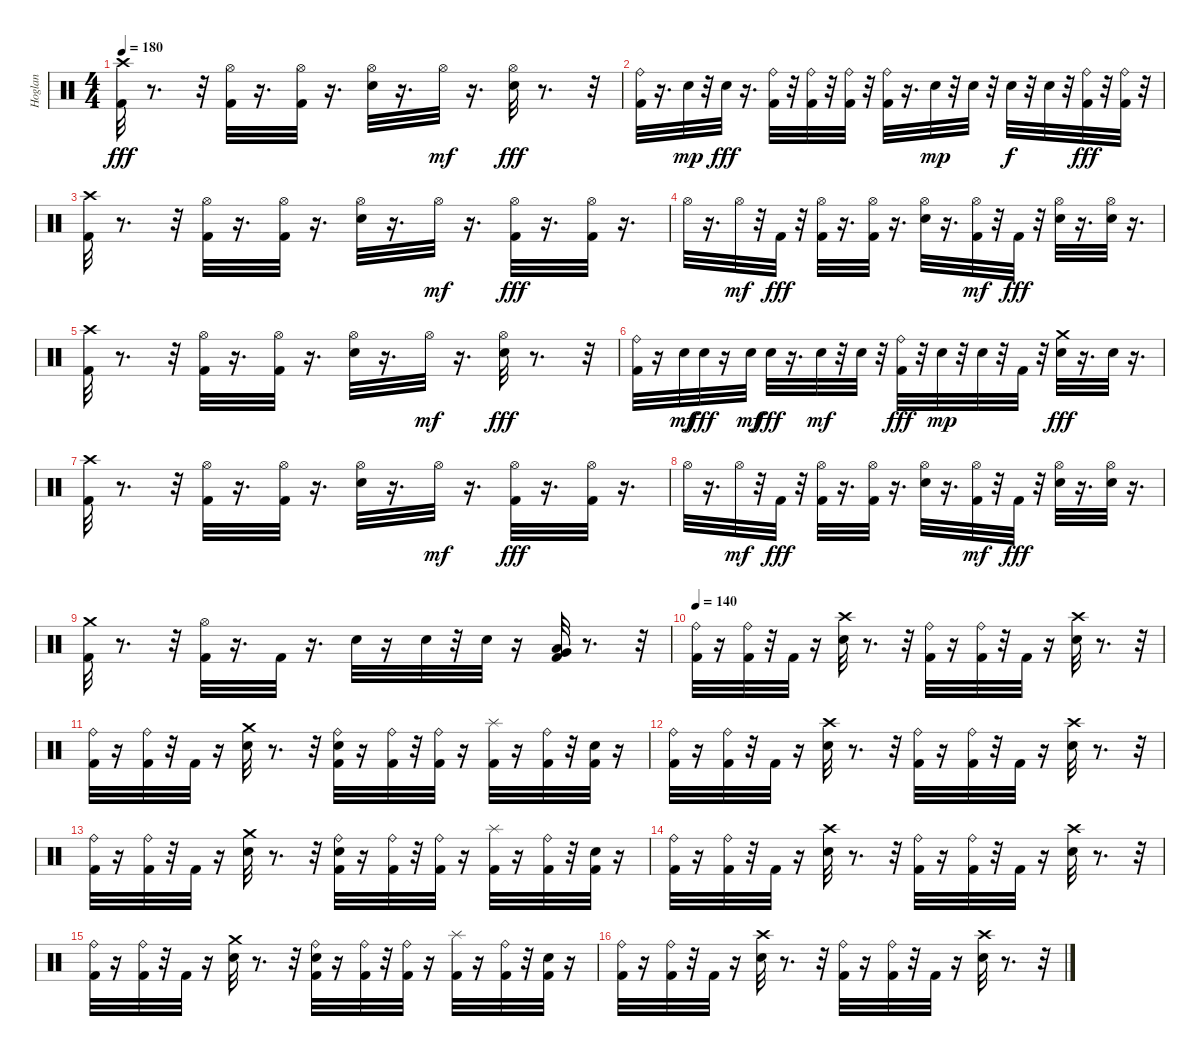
\track ("Hoglan" "Hoglan") {instrument percussion}
\staff {score}
\articulation defaults
\ts (4 4)
\tempo 180
\clef neutral
\ks c
("Crash high (hit)" "Kick (hit) 2").32{dy fff} r.8{d} r.32 ("Hi-Hat (open)" "Kick (hit) 2").32 r.16{d} ("Hi-Hat (open)" "Kick (hit) 2").32 r.16{d} ("Hi-Hat (open)" "Electric Snare (hit)").32 r.16{d} "Hi-Hat (open)".32{dy mf} r.16{d} ("Hi-Hat (open)" "Electric Snare (hit)").32{dy fff} r.8{d} r.32 |
("Ride (bell)" "Kick (hit) 2").32 r.16{d} "Electric Snare (hit)".32{dy mp} r.32 "Electric Snare (hit)".32{dy fff} r.16{d} ("Ride (bell)" "Kick (hit) 2").32 r.32 ("Ride (bell)" "Kick (hit) 2").32 r.32 ("Ride (bell)" "Kick (hit) 2").32 r.32 ("Ride (bell)" "Kick (hit) 2").32 r.16{d} "Electric Snare (hit)".32{dy mp} r.32 "Electric Snare (hit)".32 r.32 "Electric Snare (hit)".32{dy f} r.32 "Electric Snare (hit)".32 r.32 ("Ride (bell)" "Kick (hit) 2").32{dy fff} r.32 ("Ride (bell)" "Kick (hit) 2").32 r.32 |
("Crash high (hit)" "Kick (hit) 2").32 r.8{d} r.32 ("Hi-Hat (open)" "Kick (hit) 2").32 r.16{d} ("Hi-Hat (open)" "Kick (hit) 2").32 r.16{d} ("Hi-Hat (open)" "Electric Snare (hit)").32 r.16{d} "Hi-Hat (open)".32{dy mf} r.16{d} ("Hi-Hat (open)" "Kick (hit) 2").32{dy fff} r.16{d} ("Hi-Hat (open)" "Kick (hit) 2").32 r.16{d} |
"Hi-Hat (open)".32 r.16{d} "Hi-Hat (open)".32{dy mf} r.32 "Kick (hit) 2".32{dy fff} r.32 ("Hi-Hat (open)" "Kick (hit) 2").32 r.16{d} ("Hi-Hat (open)" "Kick (hit) 2").32 r.16{d} ("Hi-Hat (open)" "Electric Snare (hit)").32 r.16{d} ("Hi-Hat (open)" "Kick (hit) 2").32{dy mf} r.32 "Kick (hit) 2".32{dy fff} r.32 ("Hi-Hat (open)" "Electric Snare (hit)").32 r.16{d} ("Hi-Hat (open)" "Electric Snare (hit)").32 r.16{d} |
("Crash high (hit)" "Kick (hit) 2").32 r.8{d} r.32 ("Hi-Hat (open)" "Kick (hit) 2").32 r.16{d} ("Hi-Hat (open)" "Kick (hit) 2").32 r.16{d} ("Hi-Hat (open)" "Electric Snare (hit)").32 r.16{d} "Hi-Hat (open)".32{dy mf} r.16{d} ("Hi-Hat (open)" "Electric Snare (hit)").32{dy fff} r.8{d} r.32 |
("Ride (bell)" "Kick (hit) 2").32 r.16 "Electric Snare (hit)".32{dy mf} "Electric Snare (hit)".32{dy fff} r.16 "Electric Snare (hit)".32{dy mf} "Electric Snare (hit)".32{dy fff} r.16{d} "Electric Snare (hit)".32{dy mf} r.32 "Electric Snare (hit)".32 r.32 ("Ride (bell)" "Kick (hit) 2").32{dy fff} r.32 "Electric Snare (hit)".32{dy mp} r.32 "Electric Snare (hit)".32 r.32 "Kick (hit) 2".32 r.32 ("Crash medium (hit)" "Electric Snare (hit)").32{dy fff} r.16{d} "Electric Snare (hit)".32 r.16{d} |
("Crash high (hit)" "Kick (hit) 2").32 r.8{d} r.32 ("Hi-Hat (open)" "Kick (hit) 2").32 r.16{d} ("Hi-Hat (open)" "Kick (hit) 2").32 r.16{d} ("Hi-Hat (open)" "Electric Snare (hit)").32 r.16{d} "Hi-Hat (open)".32{dy mf} r.16{d} ("Hi-Hat (open)" "Kick (hit) 2").32{dy fff} r.16{d} ("Hi-Hat (open)" "Kick (hit) 2").32 r.16{d} |
"Hi-Hat (open)".32 r.16{d} "Hi-Hat (open)".32{dy mf} r.32 "Kick (hit) 2".32{dy fff} r.32 ("Hi-Hat (open)" "Kick (hit) 2").32 r.16{d} ("Hi-Hat (open)" "Kick (hit) 2").32 r.16{d} ("Hi-Hat (open)" "Electric Snare (hit)").32 r.16{d} ("Hi-Hat (open)" "Kick (hit) 2").32{dy mf} r.32 "Kick (hit) 2".32{dy fff} r.32 ("Hi-Hat (open)" "Electric Snare (hit)").32 r.16{d} ("Hi-Hat (open)" "Electric Snare (hit)").32 r.16{d} |
("Crash medium (hit)" "Kick (hit) 2").32 r.8{d} r.32 ("Hi-Hat (open)" "Kick (hit) 2").32 r.16{d} "Kick (hit) 2".32 r.16{d} "Electric Snare (hit)".32 r.16 "Electric Snare (hit)".32 r.32 "Electric Snare (hit)".32 r.16 ("Very Low Tom (hit)" "Low Floor Tom (hit)" "Kick (hit) 2").32 r.8{d} r.32 |
\tempo 140
("Ride (bell)" "Kick (hit) 2").32 r.16 ("Ride (bell)" "Kick (hit) 2").32 r.32 "Kick (hit) 2".32 r.16 ("Crash high (hit)" "Electric Snare (hit)").32 r.8{d} r.32 ("Ride (bell)" "Kick (hit) 2").32 r.16 ("Ride (bell)" "Kick (hit) 2").32 r.32 "Kick (hit) 2".32 r.16 ("Crash high (hit)" "Electric Snare (hit)").32 r.8{d} r.32 |
("Ride (bell)" "Kick (hit) 2").32 r.16 ("Ride (bell)" "Kick (hit) 2").32 r.32 "Kick (hit) 2".32 r.16 ("Crash medium (hit)" "Electric Snare (hit)").32 r.8{d} r.32 ("Ride (bell)" "Electric Snare (hit)" "Kick (hit) 2").32 r.16 ("Ride (bell)" "Kick (hit) 2").32 r.32 ("Ride (bell)" "Kick (hit) 2").32 r.16 ("Splash (hit)" "Kick (hit) 2").32 r.16 ("Ride (bell)" "Kick (hit) 2").32 r.32 ("Electric Snare (hit)" "Kick (hit) 2").32 r.16 |
("Ride (bell)" "Kick (hit) 2").32 r.16 ("Ride (bell)" "Kick (hit) 2").32 r.32 "Kick (hit) 2".32 r.16 ("Crash high (hit)" "Electric Snare (hit)").32 r.8{d} r.32 ("Ride (bell)" "Kick (hit) 2").32 r.16 ("Ride (bell)" "Kick (hit) 2").32 r.32 "Kick (hit) 2".32 r.16 ("Crash high (hit)" "Electric Snare (hit)").32 r.8{d} r.32 |
("Ride (bell)" "Kick (hit) 2").32 r.16 ("Ride (bell)" "Kick (hit) 2").32 r.32 "Kick (hit) 2".32 r.16 ("Crash medium (hit)" "Electric Snare (hit)").32 r.8{d} r.32 ("Ride (bell)" "Electric Snare (hit)" "Kick (hit) 2").32 r.16 ("Ride (bell)" "Kick (hit) 2").32 r.32 ("Ride (bell)" "Kick (hit) 2").32 r.16 ("Splash (hit)" "Kick (hit) 2").32 r.16 ("Ride (bell)" "Kick (hit) 2").32 r.32 ("Electric Snare (hit)" "Kick (hit) 2").32 r.16 |
("Ride (bell)" "Kick (hit) 2").32 r.16 ("Ride (bell)" "Kick (hit) 2").32 r.32 "Kick (hit) 2".32 r.16 ("Crash high (hit)" "Electric Snare (hit)").32 r.8{d} r.32 ("Ride (bell)" "Kick (hit) 2").32 r.16 ("Ride (bell)" "Kick (hit) 2").32 r.32 "Kick (hit) 2".32 r.16 ("Crash high (hit)" "Electric Snare (hit)").32 r.8{d} r.32 |
("Ride (bell)" "Kick (hit) 2").32 r.16 ("Ride (bell)" "Kick (hit) 2").32 r.32 "Kick (hit) 2".32 r.16 ("Crash medium (hit)" "Electric Snare (hit)").32 r.8{d} r.32 ("Ride (bell)" "Electric Snare (hit)" "Kick (hit) 2").32 r.16 ("Ride (bell)" "Kick (hit) 2").32 r.32 ("Ride (bell)" "Kick (hit) 2").32 r.16 ("Splash (hit)" "Kick (hit) 2").32 r.16 ("Ride (bell)" "Kick (hit) 2").32 r.32 ("Electric Snare (hit)" "Kick (hit) 2").32 r.16 |
("Ride (bell)" "Kick (hit) 2").32 r.16 ("Ride (bell)" "Kick (hit) 2").32 r.32 "Kick (hit) 2".32 r.16 ("Crash high (hit)" "Electric Snare (hit)").32 r.8{d} r.32 ("Ride (bell)" "Kick (hit) 2").32 r.16 ("Ride (bell)" "Kick (hit) 2").32 r.32 "Kick (hit) 2".32 r.16 ("Crash high (hit)" "Electric Snare (hit)").32 r.8{d} r.32
